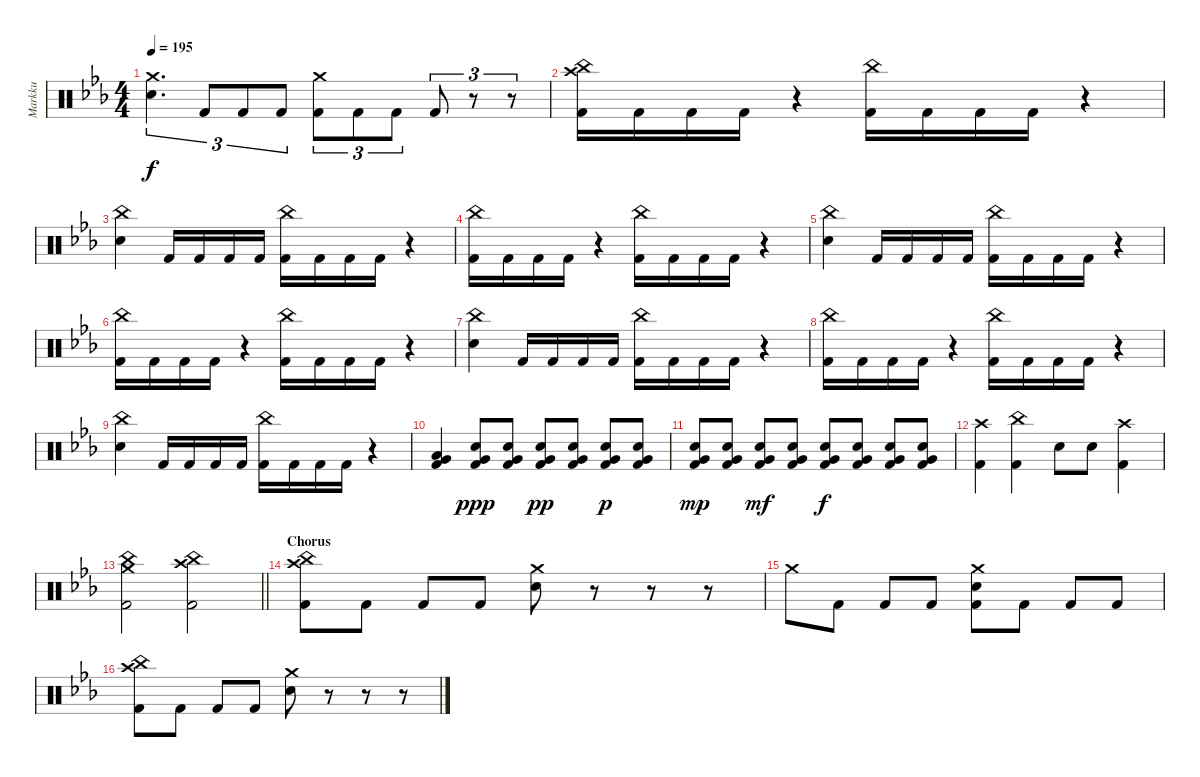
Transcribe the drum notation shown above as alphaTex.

\track ("Markku" "Markku") {instrument percussion}
\staff {score}
\articulation defaults
\ts (4 4)
\tempo 195
\clef neutral
\ks cminor
("Crash medium (hit)" "Snare (hit) 2").4{d tu (3 2) dy f} "Kick (hit) 2".8{tu (3 2)} "Kick (hit) 2".8{tu (3 2)} "Kick (hit) 2".8{tu (3 2)} ("Kick (hit) 2" "Crash medium (hit)").8{tu (3 2)} "Kick (hit) 2".8{tu (3 2)} "Kick (hit) 2".8{tu (3 2)} "Kick (hit) 2".8{tu (3 2)} r.8{tu (3 2)} r.8{tu (3 2)} |
("Kick (hit) 2" "Crash high (hit)" "China (hit)").16 "Kick (hit) 2".16 "Kick (hit) 2".16 "Kick (hit) 2".16 r.4 ("Kick (hit) 2" "China (hit)").16 "Kick (hit) 2".16 "Kick (hit) 2".16 "Kick (hit) 2".16 r.4 |
("China (hit)" "Snare (hit) 2").4 "Kick (hit) 2".16 "Kick (hit) 2".16 "Kick (hit) 2".16 "Kick (hit) 2".16 ("Kick (hit) 2" "China (hit)").16 "Kick (hit) 2".16 "Kick (hit) 2".16 "Kick (hit) 2".16 r.4 |
("Kick (hit) 2" "China (hit)").16 "Kick (hit) 2".16 "Kick (hit) 2".16 "Kick (hit) 2".16 r.4 ("Kick (hit) 2" "China (hit)").16 "Kick (hit) 2".16 "Kick (hit) 2".16 "Kick (hit) 2".16 r.4 |
("China (hit)" "Snare (hit) 2").4 "Kick (hit) 2".16 "Kick (hit) 2".16 "Kick (hit) 2".16 "Kick (hit) 2".16 ("Kick (hit) 2" "China (hit)").16 "Kick (hit) 2".16 "Kick (hit) 2".16 "Kick (hit) 2".16 r.4 |
("Kick (hit) 2" "China (hit)").16 "Kick (hit) 2".16 "Kick (hit) 2".16 "Kick (hit) 2".16 r.4 ("Kick (hit) 2" "China (hit)").16 "Kick (hit) 2".16 "Kick (hit) 2".16 "Kick (hit) 2".16 r.4 |
("China (hit)" "Snare (hit) 2").4 "Kick (hit) 2".16 "Kick (hit) 2".16 "Kick (hit) 2".16 "Kick (hit) 2".16 ("Kick (hit) 2" "China (hit)").16 "Kick (hit) 2".16 "Kick (hit) 2".16 "Kick (hit) 2".16 r.4 |
("Kick (hit) 2" "China (hit)").16 "Kick (hit) 2".16 "Kick (hit) 2".16 "Kick (hit) 2".16 r.4 ("Kick (hit) 2" "China (hit)").16 "Kick (hit) 2".16 "Kick (hit) 2".16 "Kick (hit) 2".16 r.4 |
("China (hit)" "Snare (hit) 2").4 "Kick (hit) 2".16 "Kick (hit) 2".16 "Kick (hit) 2".16 "Kick (hit) 2".16 ("Kick (hit) 2" "China (hit)").16 "Kick (hit) 2".16 "Kick (hit) 2".16 "Kick (hit) 2".16 r.4 |
("Very Low Tom (hit)" "Low Tom (hit)" "Kick (hit) 2").4 ("Snare (hit) 2" "Very Low Tom (hit)" "Kick (hit) 2").8{dy ppp} ("Snare (hit) 2" "Very Low Tom (hit)" "Kick (hit) 2").8 ("Snare (hit) 2" "Very Low Tom (hit)" "Kick (hit) 2").8{dy pp} ("Snare (hit) 2" "Very Low Tom (hit)" "Kick (hit) 2").8 ("Snare (hit) 2" "Very Low Tom (hit)" "Kick (hit) 2").8{dy p} ("Snare (hit) 2" "Very Low Tom (hit)" "Kick (hit) 2").8 |
("Snare (hit) 2" "Very Low Tom (hit)" "Kick (hit) 2").8{dy mp} ("Snare (hit) 2" "Very Low Tom (hit)" "Kick (hit) 2").8 ("Snare (hit) 2" "Very Low Tom (hit)" "Kick (hit) 2").8{dy mf} ("Snare (hit) 2" "Very Low Tom (hit)" "Kick (hit) 2").8 ("Snare (hit) 2" "Very Low Tom (hit)" "Kick (hit) 2").8{dy f} ("Snare (hit) 2" "Very Low Tom (hit)" "Kick (hit) 2").8 ("Snare (hit) 2" "Very Low Tom (hit)" "Kick (hit) 2").8 ("Snare (hit) 2" "Very Low Tom (hit)" "Kick (hit) 2").8 |
("Kick (hit) 2" "Crash high (hit)").4 ("Kick (hit) 2" "China (hit)").4 "Snare (hit) 2".8 "Snare (hit) 2".8 ("Kick (hit) 2" "Crash high (hit)").4 |
\barLineRight lightlight
("China (hit)" "Kick (hit) 2" "Crash medium (hit)").2 ("China (hit)" "Kick (hit) 2" "Crash high (hit)").2 |
\section ("" "Chorus")
("Kick (hit) 2" "Crash high (hit)" "China (hit)").8 "Kick (hit) 2".8 "Kick (hit) 2".8 "Kick (hit) 2".8 ("Snare (hit) 2" "Crash medium (hit)").8 r.8 r.8 r.8 |
"Crash medium (hit)".8 "Kick (hit) 2".8 "Kick (hit) 2".8 "Kick (hit) 2".8 ("Kick (hit) 2" "Crash medium (hit)" "Snare (hit) 2").8 "Kick (hit) 2".8 "Kick (hit) 2".8 "Kick (hit) 2".8 |
("Kick (hit) 2" "Crash high (hit)" "China (hit)").8 "Kick (hit) 2".8 "Kick (hit) 2".8 "Kick (hit) 2".8 ("Snare (hit) 2" "Crash medium (hit)").8 r.8 r.8 r.8
